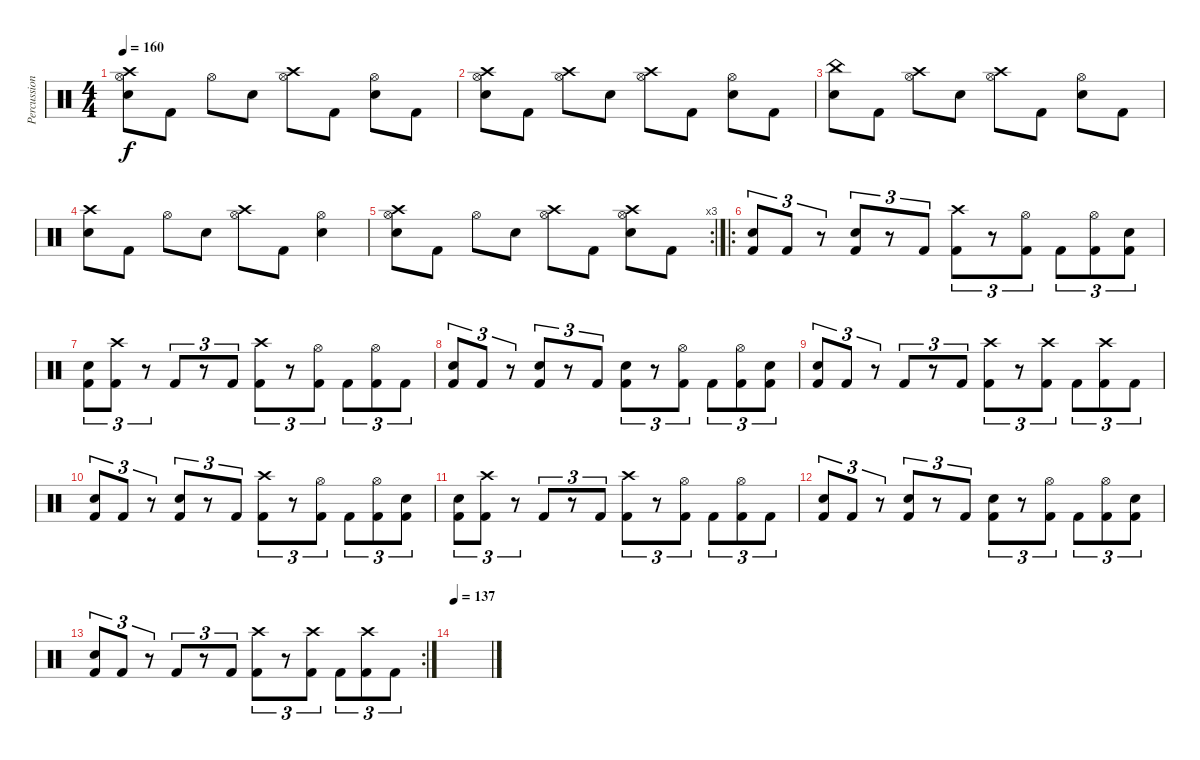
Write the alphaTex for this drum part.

\track ("Percussion" "Percussion") {instrument percussion}
\staff {score}
\articulation defaults
\ts (4 4)
\tempo 160
\clef neutral
\ks c
("Crash high (hit)" "Hi-Hat (open)" "Snare (hit) 2").8{dy f} "Kick (hit) 2".8 "Hi-Hat (open)".8 "Snare (hit) 2".8 ("Crash high (hit)" "Hi-Hat (open)").8 "Kick (hit) 2".8 ("Hi-Hat (open)" "Snare (hit) 2").8 "Kick (hit) 2".8 |
("Crash high (hit)" "Hi-Hat (open)" "Snare (hit) 2").8 "Kick (hit) 2".8 ("Crash high (hit)" "Hi-Hat (open)").8 "Snare (hit) 2".8 ("Crash high (hit)" "Hi-Hat (open)").8 "Kick (hit) 2".8 ("Hi-Hat (open)" "Snare (hit) 2").8 "Kick (hit) 2".8 |
("China (hit)" "Snare (hit) 2").8 "Kick (hit) 2".8 ("Crash high (hit)" "Hi-Hat (open)").8 "Snare (hit) 2".8 ("Crash high (hit)" "Hi-Hat (open)").8 "Kick (hit) 2".8 ("Hi-Hat (open)" "Snare (hit) 2").8 "Kick (hit) 2".8 |
("Crash high (hit)" "Snare (hit) 2").8 "Kick (hit) 2".8 "Hi-Hat (open)".8 "Snare (hit) 2".8 ("Crash high (hit)" "Hi-Hat (open)").8 "Kick (hit) 2".8 ("Hi-Hat (open)" "Snare (hit) 2").4 |
\rc 3
("Crash high (hit)" "Hi-Hat (open)" "Snare (hit) 2").8 "Kick (hit) 2".8 "Hi-Hat (open)".8 "Snare (hit) 2".8 ("Crash high (hit)" "Hi-Hat (open)").8 "Kick (hit) 2".8 ("Crash high (hit)" "Hi-Hat (open)" "Snare (hit) 2").8 "Kick (hit) 2".8 |
\ro
("Snare (hit) 2" "Kick (hit) 2").8{tu (3 2)} "Kick (hit) 2".8{tu (3 2)} r.8{tu (3 2)} ("Snare (hit) 2" "Kick (hit) 2").8{tu (3 2)} r.8{tu (3 2)} "Kick (hit) 2".8{tu (3 2)} ("Crash high (hit)" "Kick (hit) 2").8{tu (3 2)} r.8{tu (3 2)} ("Hi-Hat (open)" "Kick (hit) 2").8{tu (3 2)} "Kick (hit) 2".8{tu (3 2)} ("Hi-Hat (open)" "Kick (hit) 2").8{tu (3 2)} ("Snare (hit) 2" "Kick (hit) 2").8{tu (3 2)} |
("Snare (hit) 2" "Kick (hit) 2").8{tu (3 2)} ("Crash high (hit)" "Kick (hit) 2").8{tu (3 2)} r.8{tu (3 2)} "Kick (hit) 2".8{tu (3 2)} r.8{tu (3 2)} "Kick (hit) 2".8{tu (3 2)} ("Crash high (hit)" "Kick (hit) 2").8{tu (3 2)} r.8{tu (3 2)} ("Hi-Hat (open)" "Kick (hit) 2").8{tu (3 2)} "Kick (hit) 2".8{tu (3 2)} ("Hi-Hat (open)" "Kick (hit) 2").8{tu (3 2)} "Kick (hit) 2".8{tu (3 2)} |
("Snare (hit) 2" "Kick (hit) 2").8{tu (3 2)} "Kick (hit) 2".8{tu (3 2)} r.8{tu (3 2)} ("Snare (hit) 2" "Kick (hit) 2").8{tu (3 2)} r.8{tu (3 2)} "Kick (hit) 2".8{tu (3 2)} ("Snare (hit) 2" "Kick (hit) 2").8{tu (3 2)} r.8{tu (3 2)} ("Hi-Hat (open)" "Kick (hit) 2").8{tu (3 2)} "Kick (hit) 2".8{tu (3 2)} ("Hi-Hat (open)" "Kick (hit) 2").8{tu (3 2)} ("Snare (hit) 2" "Kick (hit) 2").8{tu (3 2)} |
("Snare (hit) 2" "Kick (hit) 2").8{tu (3 2)} "Kick (hit) 2".8{tu (3 2)} r.8{tu (3 2)} "Kick (hit) 2".8{tu (3 2)} r.8{tu (3 2)} "Kick (hit) 2".8{tu (3 2)} ("Crash high (hit)" "Kick (hit) 2").8{tu (3 2)} r.8{tu (3 2)} ("Crash high (hit)" "Kick (hit) 2").8{tu (3 2)} "Kick (hit) 2".8{tu (3 2)} ("Crash high (hit)" "Kick (hit) 2").8{tu (3 2)} "Kick (hit) 2".8{tu (3 2)} |
("Snare (hit) 2" "Kick (hit) 2").8{tu (3 2)} "Kick (hit) 2".8{tu (3 2)} r.8{tu (3 2)} ("Snare (hit) 2" "Kick (hit) 2").8{tu (3 2)} r.8{tu (3 2)} "Kick (hit) 2".8{tu (3 2)} ("Crash high (hit)" "Kick (hit) 2").8{tu (3 2)} r.8{tu (3 2)} ("Hi-Hat (open)" "Kick (hit) 2").8{tu (3 2)} "Kick (hit) 2".8{tu (3 2)} ("Hi-Hat (open)" "Kick (hit) 2").8{tu (3 2)} ("Snare (hit) 2" "Kick (hit) 2").8{tu (3 2)} |
("Snare (hit) 2" "Kick (hit) 2").8{tu (3 2)} ("Crash high (hit)" "Kick (hit) 2").8{tu (3 2)} r.8{tu (3 2)} "Kick (hit) 2".8{tu (3 2)} r.8{tu (3 2)} "Kick (hit) 2".8{tu (3 2)} ("Crash high (hit)" "Kick (hit) 2").8{tu (3 2)} r.8{tu (3 2)} ("Hi-Hat (open)" "Kick (hit) 2").8{tu (3 2)} "Kick (hit) 2".8{tu (3 2)} ("Hi-Hat (open)" "Kick (hit) 2").8{tu (3 2)} "Kick (hit) 2".8{tu (3 2)} |
("Snare (hit) 2" "Kick (hit) 2").8{tu (3 2)} "Kick (hit) 2".8{tu (3 2)} r.8{tu (3 2)} ("Snare (hit) 2" "Kick (hit) 2").8{tu (3 2)} r.8{tu (3 2)} "Kick (hit) 2".8{tu (3 2)} ("Snare (hit) 2" "Kick (hit) 2").8{tu (3 2)} r.8{tu (3 2)} ("Hi-Hat (open)" "Kick (hit) 2").8{tu (3 2)} "Kick (hit) 2".8{tu (3 2)} ("Hi-Hat (open)" "Kick (hit) 2").8{tu (3 2)} ("Snare (hit) 2" "Kick (hit) 2").8{tu (3 2)} |
\rc 2
("Snare (hit) 2" "Kick (hit) 2").8{tu (3 2)} "Kick (hit) 2".8{tu (3 2)} r.8{tu (3 2)} "Kick (hit) 2".8{tu (3 2)} r.8{tu (3 2)} "Kick (hit) 2".8{tu (3 2)} ("Crash high (hit)" "Kick (hit) 2").8{tu (3 2)} r.8{tu (3 2)} ("Crash high (hit)" "Kick (hit) 2").8{tu (3 2)} "Kick (hit) 2".8{tu (3 2)} ("Crash high (hit)" "Kick (hit) 2").8{tu (3 2)} "Kick (hit) 2".8{tu (3 2)} |
\tempo 137
